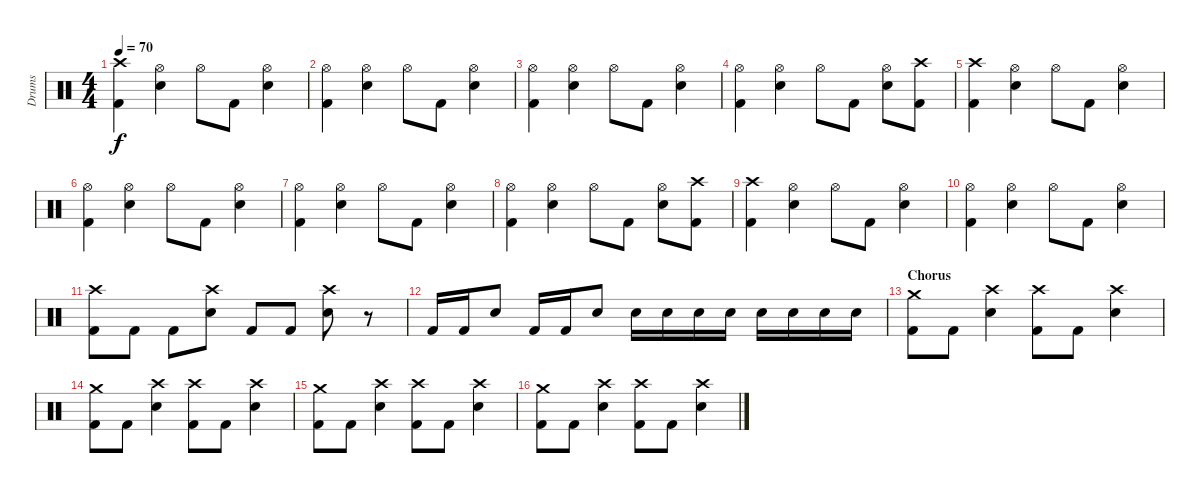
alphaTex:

\track ("Drums" "Drums") {instrument percussion}
\staff {score}
\articulation defaults
\ts (4 4)
\tempo 70
\clef neutral
\ks c
("Crash high (hit)" "Kick (hit) 2").4{dy f} ("Hi-Hat (open)" "Snare (hit) 2").4 "Hi-Hat (open)".8 "Kick (hit) 2".8 ("Hi-Hat (open)" "Snare (hit) 2").4 |
("Hi-Hat (open)" "Kick (hit) 2").4 ("Hi-Hat (open)" "Snare (hit) 2").4 "Hi-Hat (open)".8 "Kick (hit) 2".8 ("Hi-Hat (open)" "Snare (hit) 2").4 |
("Hi-Hat (open)" "Kick (hit) 2").4 ("Hi-Hat (open)" "Snare (hit) 2").4 "Hi-Hat (open)".8 "Kick (hit) 2".8 ("Hi-Hat (open)" "Snare (hit) 2").4 |
("Hi-Hat (open)" "Kick (hit) 2").4 ("Hi-Hat (open)" "Snare (hit) 2").4 "Hi-Hat (open)".8 "Kick (hit) 2".8 ("Hi-Hat (open)" "Snare (hit) 2").8 ("Crash high (hit)" "Kick (hit) 2").8 |
("Crash high (hit)" "Kick (hit) 2").4 ("Hi-Hat (open)" "Snare (hit) 2").4 "Hi-Hat (open)".8 "Kick (hit) 2".8 ("Hi-Hat (open)" "Snare (hit) 2").4 |
("Hi-Hat (open)" "Kick (hit) 2").4 ("Hi-Hat (open)" "Snare (hit) 2").4 "Hi-Hat (open)".8 "Kick (hit) 2".8 ("Hi-Hat (open)" "Snare (hit) 2").4 |
("Hi-Hat (open)" "Kick (hit) 2").4 ("Hi-Hat (open)" "Snare (hit) 2").4 "Hi-Hat (open)".8 "Kick (hit) 2".8 ("Hi-Hat (open)" "Snare (hit) 2").4 |
("Hi-Hat (open)" "Kick (hit) 2").4 ("Hi-Hat (open)" "Snare (hit) 2").4 "Hi-Hat (open)".8 "Kick (hit) 2".8 ("Hi-Hat (open)" "Snare (hit) 2").8 ("Crash high (hit)" "Kick (hit) 2").8 |
("Crash high (hit)" "Kick (hit) 2").4 ("Hi-Hat (open)" "Snare (hit) 2").4 "Hi-Hat (open)".8 "Kick (hit) 2".8 ("Hi-Hat (open)" "Snare (hit) 2").4 |
("Hi-Hat (open)" "Kick (hit) 2").4 ("Hi-Hat (open)" "Snare (hit) 2").4 "Hi-Hat (open)".8 "Kick (hit) 2".8 ("Hi-Hat (open)" "Snare (hit) 2").4 |
("Crash high (hit)" "Kick (hit) 2").8 "Kick (hit) 2".8 "Kick (hit) 2".8 ("Crash high (hit)" "Snare (hit) 2").8 "Kick (hit) 2".8 "Kick (hit) 2".8 ("Crash high (hit)" "Snare (hit) 2").8 r.8 |
"Kick (hit) 2".16 "Kick (hit) 2".16 "Snare (hit) 2".8 "Kick (hit) 2".16 "Kick (hit) 2".16 "Snare (hit) 2".8 "Snare (hit) 2".16 "Snare (hit) 2".16 "Snare (hit) 2".16 "Snare (hit) 2".16 "Snare (hit) 2".16 "Snare (hit) 2".16 "Snare (hit) 2".16 "Snare (hit) 2".16 |
\section ("" "Chorus")
("Crash medium (hit)" "Kick (hit) 2").8 "Kick (hit) 2".8 ("Crash high (hit)" "Snare (hit) 2").4 ("Crash high (hit)" "Kick (hit) 2").8 "Kick (hit) 2".8 ("Crash high (hit)" "Snare (hit) 2").4 |
("Crash medium (hit)" "Kick (hit) 2").8 "Kick (hit) 2".8 ("Crash high (hit)" "Snare (hit) 2").4 ("Crash high (hit)" "Kick (hit) 2").8 "Kick (hit) 2".8 ("Crash high (hit)" "Snare (hit) 2").4 |
("Crash medium (hit)" "Kick (hit) 2").8 "Kick (hit) 2".8 ("Crash high (hit)" "Snare (hit) 2").4 ("Crash high (hit)" "Kick (hit) 2").8 "Kick (hit) 2".8 ("Crash high (hit)" "Snare (hit) 2").4 |
("Crash medium (hit)" "Kick (hit) 2").8 "Kick (hit) 2".8 ("Crash high (hit)" "Snare (hit) 2").4 ("Crash high (hit)" "Kick (hit) 2").8 "Kick (hit) 2".8 ("Crash high (hit)" "Snare (hit) 2").4
